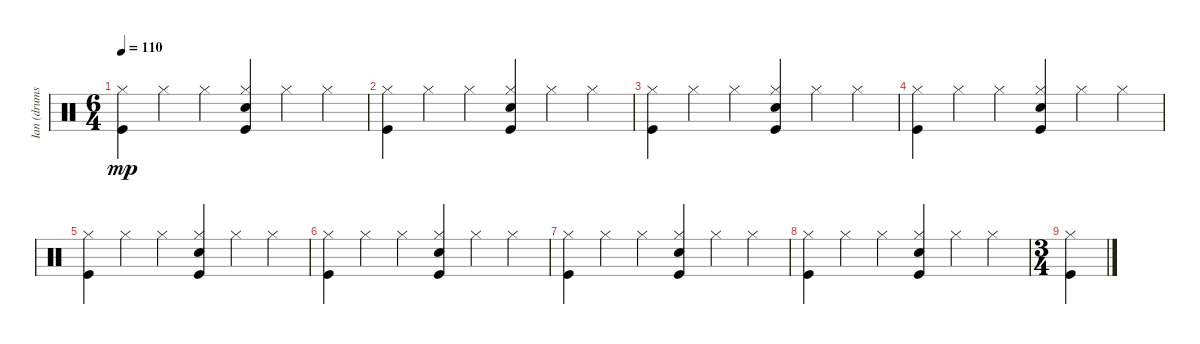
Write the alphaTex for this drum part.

\track ("Ian (drums)" "Ian (drums") {instrument percussion}
\staff {score}
\articulation defaults
\ts (6 4)
\tempo 110
\clef neutral
\ks c
("Kick (hit)" "Hi-Hat (closed)").4{dy mp} "Hi-Hat (closed)".4 "Hi-Hat (closed)".4 ("Kick (hit)" "Hi-Hat (closed)" "Snare (hit) 2").4 "Hi-Hat (closed)".4 "Hi-Hat (closed)".4 |
("Kick (hit)" "Hi-Hat (closed)").4 "Hi-Hat (closed)".4 "Hi-Hat (closed)".4 ("Kick (hit)" "Hi-Hat (closed)" "Snare (hit) 2").4 "Hi-Hat (closed)".4 "Hi-Hat (closed)".4 |
("Kick (hit)" "Hi-Hat (closed)").4 "Hi-Hat (closed)".4 "Hi-Hat (closed)".4 ("Kick (hit)" "Hi-Hat (closed)" "Snare (hit) 2").4 "Hi-Hat (closed)".4 "Hi-Hat (closed)".4 |
("Kick (hit)" "Hi-Hat (closed)").4 "Hi-Hat (closed)".4 "Hi-Hat (closed)".4 ("Kick (hit)" "Hi-Hat (closed)" "Snare (hit) 2").4 "Hi-Hat (closed)".4 "Hi-Hat (closed)".4 |
("Kick (hit)" "Hi-Hat (closed)").4 "Hi-Hat (closed)".4 "Hi-Hat (closed)".4 ("Kick (hit)" "Hi-Hat (closed)" "Snare (hit) 2").4 "Hi-Hat (closed)".4 "Hi-Hat (closed)".4 |
("Kick (hit)" "Hi-Hat (closed)").4 "Hi-Hat (closed)".4 "Hi-Hat (closed)".4 ("Kick (hit)" "Hi-Hat (closed)" "Snare (hit) 2").4 "Hi-Hat (closed)".4 "Hi-Hat (closed)".4 |
("Kick (hit)" "Hi-Hat (closed)").4 "Hi-Hat (closed)".4 "Hi-Hat (closed)".4 ("Kick (hit)" "Hi-Hat (closed)" "Snare (hit) 2").4 "Hi-Hat (closed)".4 "Hi-Hat (closed)".4 |
("Kick (hit)" "Hi-Hat (closed)").4 "Hi-Hat (closed)".4 "Hi-Hat (closed)".4 ("Kick (hit)" "Hi-Hat (closed)" "Snare (hit) 2").4 "Hi-Hat (closed)".4 "Hi-Hat (closed)".4 |
\ts (3 4)
("Kick (hit)" "Hi-Hat (closed)").4
